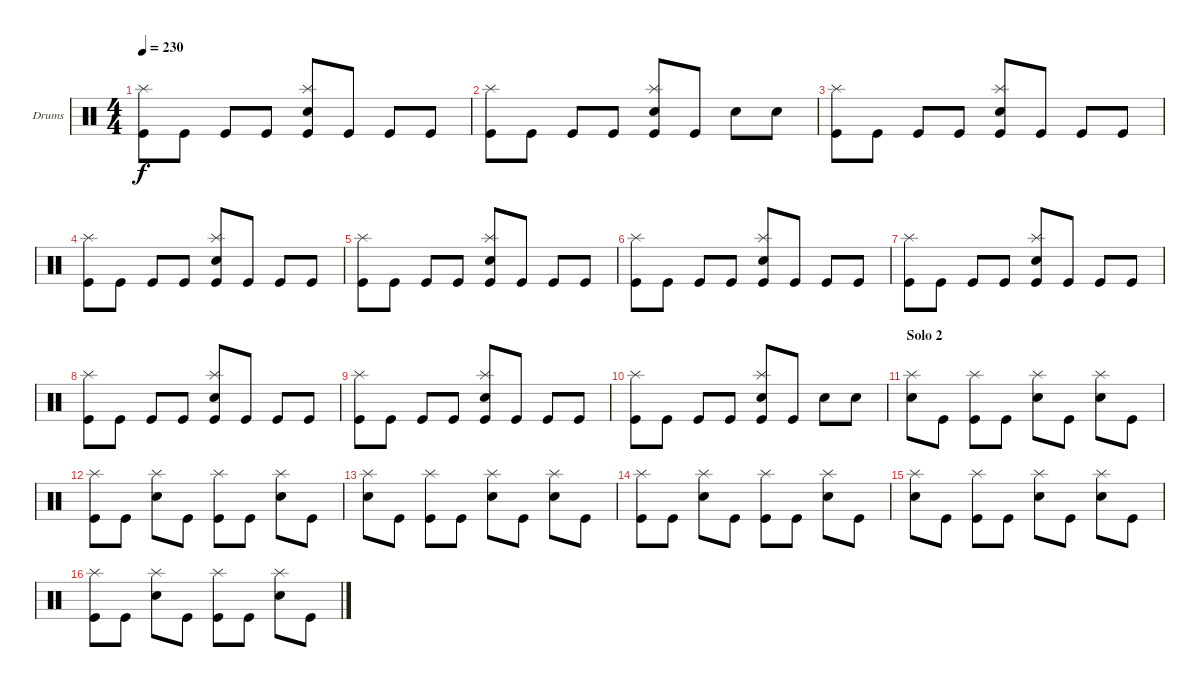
\defaultSystemsLayout 4
\bracketExtendMode groupsimilarinstruments
\firstSystemTrackNameOrientation horizontal
\otherSystemsTrackNameOrientation horizontal
\track ("Drumkit" "Drums") {instrument percussion}
\staff {score}
\articulation defaults
\ts (4 4)
\tempo 230
\clef neutral
\ks c
("Kick (hit)" "Splash (hit)").8{dy f} "Kick (hit)".8 "Kick (hit)".8 "Kick (hit)".8 ("Kick (hit)" "Splash (hit)" "Snare (hit) 2").8 "Kick (hit)".8 "Kick (hit)".8 "Kick (hit)".8 |
("Kick (hit)" "Splash (hit)").8 "Kick (hit)".8 "Kick (hit)".8 "Kick (hit)".8 ("Kick (hit)" "Splash (hit)" "Snare (hit) 2").8 "Kick (hit)".8 "Snare (hit) 2".8 "Snare (hit) 2".8 |
("Kick (hit)" "Splash (hit)").8 "Kick (hit)".8 "Kick (hit)".8 "Kick (hit)".8 ("Kick (hit)" "Splash (hit)" "Snare (hit) 2").8 "Kick (hit)".8 "Kick (hit)".8 "Kick (hit)".8 |
("Kick (hit)" "Splash (hit)").8 "Kick (hit)".8 "Kick (hit)".8 "Kick (hit)".8 ("Kick (hit)" "Splash (hit)" "Snare (hit) 2").8 "Kick (hit)".8 "Kick (hit)".8 "Kick (hit)".8 |
("Kick (hit)" "Splash (hit)").8 "Kick (hit)".8 "Kick (hit)".8 "Kick (hit)".8 ("Kick (hit)" "Splash (hit)" "Snare (hit) 2").8 "Kick (hit)".8 "Kick (hit)".8 "Kick (hit)".8 |
("Kick (hit)" "Splash (hit)").8 "Kick (hit)".8 "Kick (hit)".8 "Kick (hit)".8 ("Kick (hit)" "Splash (hit)" "Snare (hit) 2").8 "Kick (hit)".8 "Kick (hit)".8 "Kick (hit)".8 |
("Kick (hit)" "Splash (hit)").8 "Kick (hit)".8 "Kick (hit)".8 "Kick (hit)".8 ("Kick (hit)" "Splash (hit)" "Snare (hit) 2").8 "Kick (hit)".8 "Kick (hit)".8 "Kick (hit)".8 |
("Kick (hit)" "Splash (hit)").8 "Kick (hit)".8 "Kick (hit)".8 "Kick (hit)".8 ("Kick (hit)" "Splash (hit)" "Snare (hit) 2").8 "Kick (hit)".8 "Kick (hit)".8 "Kick (hit)".8 |
("Kick (hit)" "Splash (hit)").8 "Kick (hit)".8 "Kick (hit)".8 "Kick (hit)".8 ("Kick (hit)" "Splash (hit)" "Snare (hit) 2").8 "Kick (hit)".8 "Kick (hit)".8 "Kick (hit)".8 |
("Kick (hit)" "Splash (hit)").8 "Kick (hit)".8 "Kick (hit)".8 "Kick (hit)".8 ("Kick (hit)" "Splash (hit)" "Snare (hit) 2").8 "Kick (hit)".8 "Snare (hit) 2".8 "Snare (hit) 2".8 |
\section ("" "Solo 2")
("Splash (hit)" "Snare (hit) 2").8 "Kick (hit)".8 ("Kick (hit)" "Splash (hit)").8 "Kick (hit)".8 ("Snare (hit) 2" "Splash (hit)").8 "Kick (hit)".8 ("Snare (hit) 2" "Splash (hit)").8 "Kick (hit)".8 |
("Kick (hit)" "Splash (hit)").8 "Kick (hit)".8 ("Snare (hit) 2" "Splash (hit)").8 "Kick (hit)".8 ("Kick (hit)" "Splash (hit)").8 "Kick (hit)".8 ("Snare (hit) 2" "Splash (hit)").8 "Kick (hit)".8 |
("Splash (hit)" "Snare (hit) 2").8 "Kick (hit)".8 ("Kick (hit)" "Splash (hit)").8 "Kick (hit)".8 ("Snare (hit) 2" "Splash (hit)").8 "Kick (hit)".8 ("Snare (hit) 2" "Splash (hit)").8 "Kick (hit)".8 |
("Kick (hit)" "Splash (hit)").8 "Kick (hit)".8 ("Snare (hit) 2" "Splash (hit)").8 "Kick (hit)".8 ("Kick (hit)" "Splash (hit)").8 "Kick (hit)".8 ("Snare (hit) 2" "Splash (hit)").8 "Kick (hit)".8 |
("Splash (hit)" "Snare (hit) 2").8 "Kick (hit)".8 ("Kick (hit)" "Splash (hit)").8 "Kick (hit)".8 ("Snare (hit) 2" "Splash (hit)").8 "Kick (hit)".8 ("Snare (hit) 2" "Splash (hit)").8 "Kick (hit)".8 |
("Kick (hit)" "Splash (hit)").8 "Kick (hit)".8 ("Snare (hit) 2" "Splash (hit)").8 "Kick (hit)".8 ("Kick (hit)" "Splash (hit)").8 "Kick (hit)".8 ("Snare (hit) 2" "Splash (hit)").8 "Kick (hit)".8
